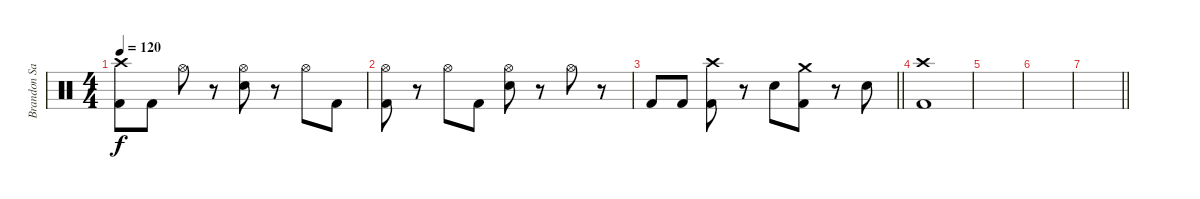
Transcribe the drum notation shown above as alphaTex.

\track ("Brandon Saller" "Brandon Sa") {instrument percussion}
\staff {score}
\articulation defaults
\ts (4 4)
\tempo 120
\clef neutral
\ks c
("Crash high (hit)" "Kick (hit) 2").8{dy f} "Kick (hit) 2".8 "Hi-Hat (open)".8 r.8 ("Hi-Hat (open)" "Electric Snare (hit)").8 r.8 "Hi-Hat (open)".8 "Kick (hit) 2".8 |
("Hi-Hat (open)" "Kick (hit) 2").8 r.8 "Hi-Hat (open)".8 "Kick (hit) 2".8 ("Hi-Hat (open)" "Electric Snare (hit)").8 r.8 "Hi-Hat (open)".8 r.8 |
\barLineRight lightlight "Kick (hit) 2".8 "Kick (hit) 2".8
("Crash high (hit)" "Kick (hit) 2").8 r.8 "Electric Snare (hit)".8 ("Crash medium (hit)" "Kick (hit) 2").8 r.8 "Electric Snare (hit)".8 |
("Crash high (hit)" "Kick (hit) 2").1 |
|
|
\barLineRight lightlight
